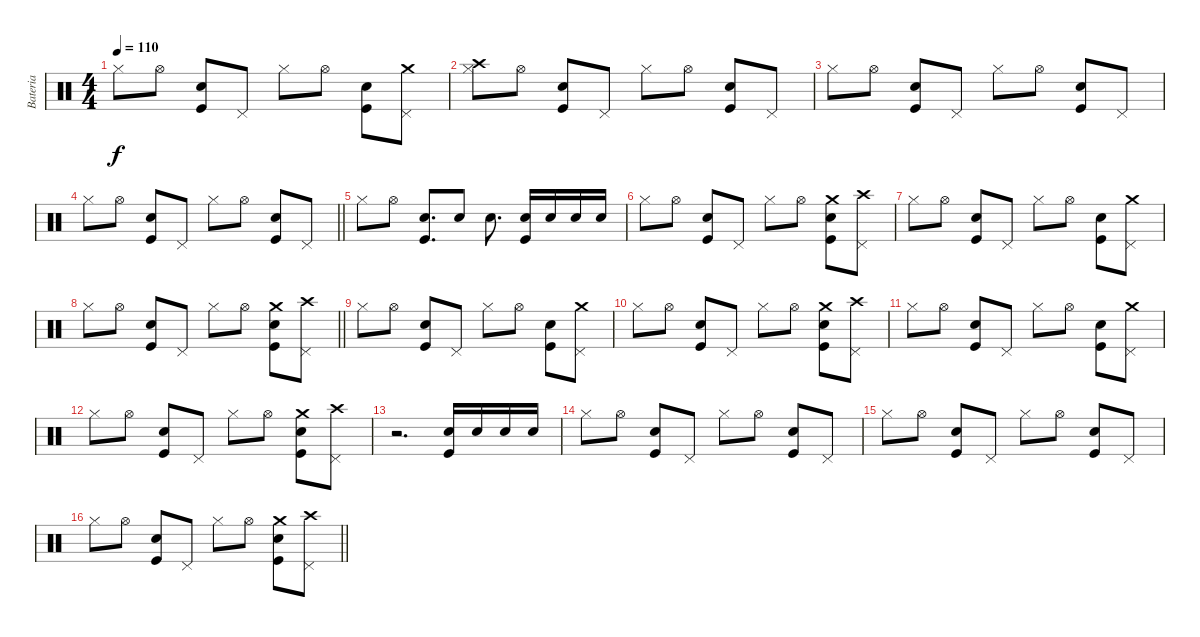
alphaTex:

\track ("Bateria" "Bateria") {instrument percussion}
\staff {score}
\articulation defaults
\ts (4 4)
\tempo 110
\clef neutral
\ks c "Hi-Hat (closed)".8{dy f} "Hi-Hat (open)".8
("Electric Snare (hit)" "Kick (hit)").8 "Pedal Hi-Hat (hit)".8 "Hi-Hat (closed)".8 "Hi-Hat (open)".8 ("Electric Snare (hit)" "Kick (hit)").8 ("Crash medium (hit)" "Pedal Hi-Hat (hit)").8 |
("Crash high (hit)" "Hi-Hat (closed)").8 "Hi-Hat (open)".8 ("Electric Snare (hit)" "Kick (hit)").8 "Pedal Hi-Hat (hit)".8 "Hi-Hat (closed)".8 "Hi-Hat (open)".8 ("Electric Snare (hit)" "Kick (hit)").8 "Pedal Hi-Hat (hit)".8 |
"Hi-Hat (closed)".8 "Hi-Hat (open)".8 ("Electric Snare (hit)" "Kick (hit)").8 "Pedal Hi-Hat (hit)".8 "Hi-Hat (closed)".8 "Hi-Hat (open)".8 ("Electric Snare (hit)" "Kick (hit)").8 "Pedal Hi-Hat (hit)".8 |
\barLineRight lightlight "Hi-Hat (closed)".8 "Hi-Hat (open)".8
("Electric Snare (hit)" "Kick (hit)").8 "Pedal Hi-Hat (hit)".8 "Hi-Hat (closed)".8 "Hi-Hat (open)".8 ("Electric Snare (hit)" "Kick (hit)").8 "Pedal Hi-Hat (hit)".8 |
"Hi-Hat (closed)".8 "Hi-Hat (open)".8 ("Electric Snare (hit)" "Kick (hit)").8{d} "Electric Snare (hit)".8 "Electric Snare (hit)".8{d} ("Electric Snare (hit)" "Kick (hit)").16 "Electric Snare (hit)".16 "Electric Snare (hit)".16 "Electric Snare (hit)".16 |
"Hi-Hat (closed)".8 "Hi-Hat (open)".8 ("Electric Snare (hit)" "Kick (hit)").8 "Pedal Hi-Hat (hit)".8 "Hi-Hat (closed)".8 "Hi-Hat (open)".8 ("Crash medium (hit)" "Electric Snare (hit)" "Kick (hit)").8 ("Crash high (hit)" "Pedal Hi-Hat (hit)").8 |
"Hi-Hat (closed)".8 "Hi-Hat (open)".8 ("Electric Snare (hit)" "Kick (hit)").8 "Pedal Hi-Hat (hit)".8 "Hi-Hat (closed)".8 "Hi-Hat (open)".8 ("Electric Snare (hit)" "Kick (hit)").8 ("Crash medium (hit)" "Pedal Hi-Hat (hit)").8 |
\barLineRight lightlight "Hi-Hat (closed)".8 "Hi-Hat (open)".8
("Electric Snare (hit)" "Kick (hit)").8 "Pedal Hi-Hat (hit)".8 "Hi-Hat (closed)".8 "Hi-Hat (open)".8 ("Crash medium (hit)" "Electric Snare (hit)" "Kick (hit)").8 ("Crash high (hit)" "Pedal Hi-Hat (hit)").8 |
"Hi-Hat (closed)".8 "Hi-Hat (open)".8 ("Electric Snare (hit)" "Kick (hit)").8 "Pedal Hi-Hat (hit)".8 "Hi-Hat (closed)".8 "Hi-Hat (open)".8 ("Electric Snare (hit)" "Kick (hit)").8 ("Crash medium (hit)" "Pedal Hi-Hat (hit)").8 |
"Hi-Hat (closed)".8 "Hi-Hat (open)".8 ("Electric Snare (hit)" "Kick (hit)").8 "Pedal Hi-Hat (hit)".8 "Hi-Hat (closed)".8 "Hi-Hat (open)".8 ("Crash medium (hit)" "Electric Snare (hit)" "Kick (hit)").8 ("Crash high (hit)" "Pedal Hi-Hat (hit)").8 |
"Hi-Hat (closed)".8 "Hi-Hat (open)".8 ("Electric Snare (hit)" "Kick (hit)").8 "Pedal Hi-Hat (hit)".8 "Hi-Hat (closed)".8 "Hi-Hat (open)".8 ("Electric Snare (hit)" "Kick (hit)").8 ("Crash medium (hit)" "Pedal Hi-Hat (hit)").8 |
"Hi-Hat (closed)".8 "Hi-Hat (open)".8 ("Electric Snare (hit)" "Kick (hit)").8 "Pedal Hi-Hat (hit)".8 "Hi-Hat (closed)".8 "Hi-Hat (open)".8 ("Crash medium (hit)" "Electric Snare (hit)" "Kick (hit)").8 ("Crash high (hit)" "Pedal Hi-Hat (hit)").8 |
r.2{d} ("Electric Snare (hit)" "Kick (hit)").16 "Electric Snare (hit)".16 "Electric Snare (hit)".16 "Electric Snare (hit)".16 |
"Hi-Hat (closed)".8 "Hi-Hat (open)".8 ("Electric Snare (hit)" "Kick (hit)").8 "Pedal Hi-Hat (hit)".8 "Hi-Hat (closed)".8 "Hi-Hat (open)".8 ("Electric Snare (hit)" "Kick (hit)").8 "Pedal Hi-Hat (hit)".8 |
"Hi-Hat (closed)".8 "Hi-Hat (open)".8 ("Electric Snare (hit)" "Kick (hit)").8 "Pedal Hi-Hat (hit)".8 "Hi-Hat (closed)".8 "Hi-Hat (open)".8 ("Electric Snare (hit)" "Kick (hit)").8 "Pedal Hi-Hat (hit)".8 |
\barLineRight lightlight "Hi-Hat (closed)".8 "Hi-Hat (open)".8
("Electric Snare (hit)" "Kick (hit)").8 "Pedal Hi-Hat (hit)".8 "Hi-Hat (closed)".8 "Hi-Hat (open)".8 ("Crash medium (hit)" "Electric Snare (hit)" "Kick (hit)").8 ("Crash high (hit)" "Pedal Hi-Hat (hit)").8
